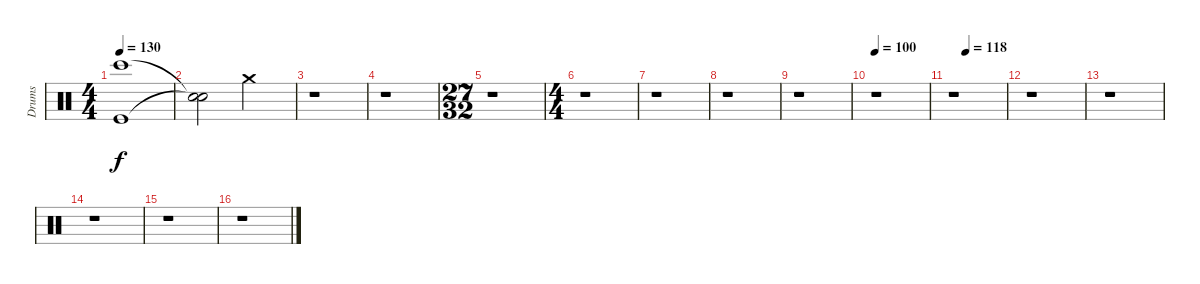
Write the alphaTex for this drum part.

\track ("Drums" "Drums") {instrument percussion}
\staff {score}
\articulation defaults
\ts (4 4)
\tempo 130
\clef neutral
\ks c
("Bongo High (hit)" "Kick (hit)").1{dy f} |
("Snare (hit)"{t} "Snare (hit)"{t}).2 "Crash medium (hit)".2 |
r.1 |
r.1 |
\ts (27 32)
r.1 |
\ts (4 4)
r.1 |
r.1 |
r.1 |
r.1 |
\tempo 100
r.1 |
\tempo (118 0.25)
r.1 |
r.1 |
r.1 |
r.1 |
r.1 |
r.1
